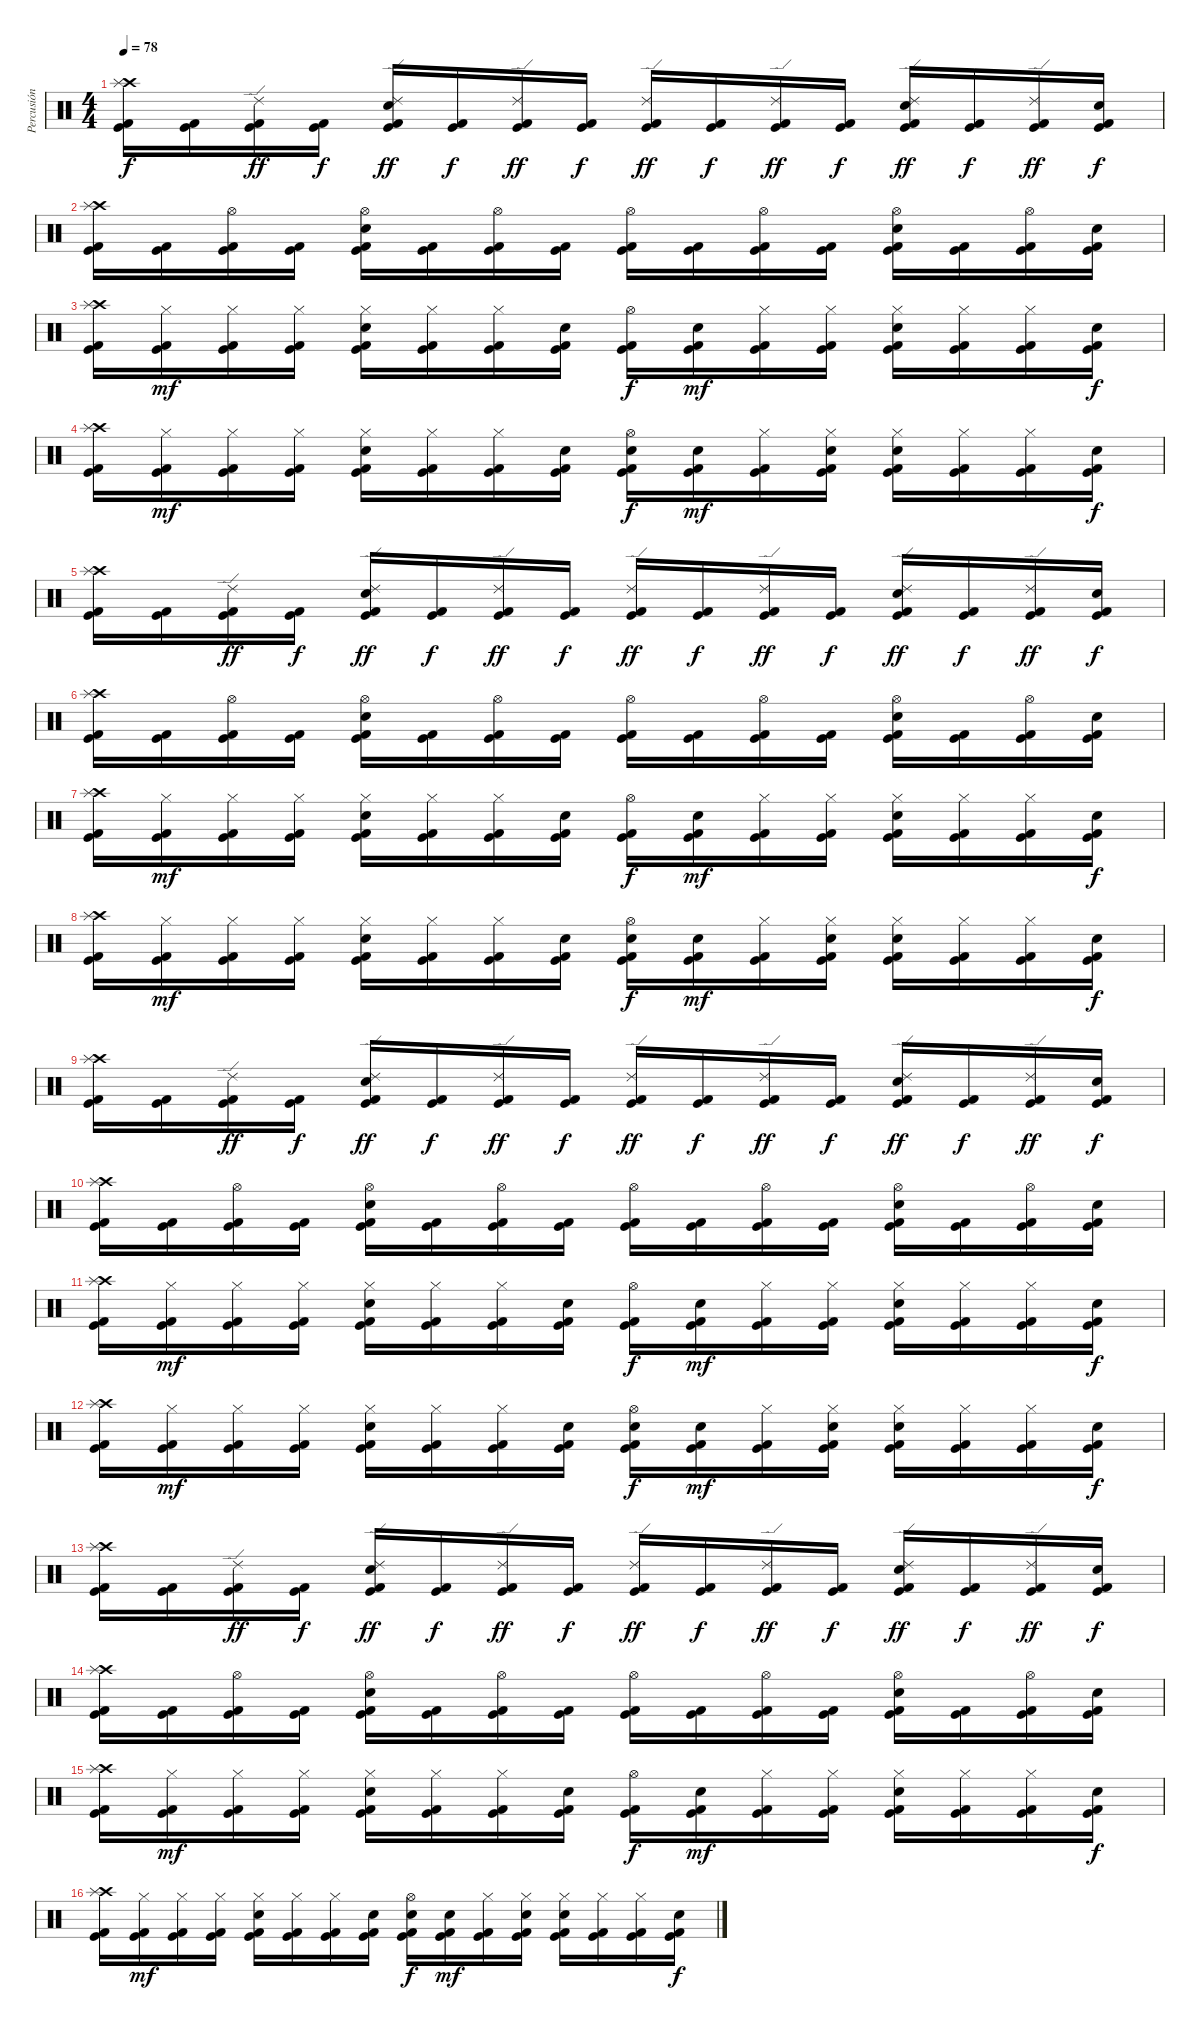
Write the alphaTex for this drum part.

\track ("Percusión" "Percusión") {instrument percussion}
\staff {score}
\articulation defaults
\ts (4 4)
\tempo 78
\clef neutral
\ks c
("Crash high (hit)" "Splash (hit)" "Kick (hit) 2" "Kick (hit)").16{dy f} ("Kick (hit) 2" "Kick (hit)").16 ("Ride (edge) 2" "Kick (hit) 2" "Kick (hit)").16{dy ff} ("Kick (hit) 2" "Kick (hit)").16{dy f} ("Ride (edge) 2" "Snare (hit) 2" "Kick (hit) 2" "Kick (hit)").16{dy ff} ("Kick (hit) 2" "Kick (hit)").16{dy f} ("Ride (edge) 2" "Kick (hit) 2" "Kick (hit)").16{dy ff} ("Kick (hit) 2" "Kick (hit)").16{dy f} ("Ride (edge) 2" "Kick (hit) 2" "Kick (hit)").16{dy ff} ("Kick (hit) 2" "Kick (hit)").16{dy f} ("Ride (edge) 2" "Kick (hit) 2" "Kick (hit)").16{dy ff} ("Kick (hit) 2" "Kick (hit)").16{dy f} ("Ride (edge) 2" "Snare (hit) 2" "Kick (hit) 2" "Kick (hit)").16{dy ff} ("Kick (hit) 2" "Kick (hit)").16{dy f} ("Ride (edge) 2" "Kick (hit) 2" "Kick (hit)").16{dy ff} ("Snare (hit) 2" "Kick (hit) 2" "Kick (hit)").16{dy f} |
("Crash high (hit)" "Splash (hit)" "Kick (hit) 2" "Kick (hit)").16 ("Kick (hit) 2" "Kick (hit)").16 ("Hi-Hat (open)" "Kick (hit) 2" "Kick (hit)").16 ("Kick (hit) 2" "Kick (hit)").16 ("Hi-Hat (open)" "Snare (hit) 2" "Kick (hit) 2" "Kick (hit)").16 ("Kick (hit) 2" "Kick (hit)").16 ("Hi-Hat (open)" "Kick (hit) 2" "Kick (hit)").16 ("Kick (hit) 2" "Kick (hit)").16 ("Hi-Hat (open)" "Kick (hit) 2" "Kick (hit)").16 ("Kick (hit) 2" "Kick (hit)").16 ("Hi-Hat (open)" "Kick (hit) 2" "Kick (hit)").16 ("Kick (hit) 2" "Kick (hit)").16 ("Hi-Hat (open)" "Snare (hit) 2" "Kick (hit) 2" "Kick (hit)").16 ("Kick (hit) 2" "Kick (hit)").16 ("Hi-Hat (open)" "Kick (hit) 2" "Kick (hit)").16 ("Snare (hit) 2" "Kick (hit) 2" "Kick (hit)").16 |
("Crash high (hit)" "Splash (hit)" "Kick (hit) 2" "Kick (hit)").16 ("Hi-Hat (closed)" "Kick (hit) 2" "Kick (hit)").16{dy mf} ("Hi-Hat (closed)" "Kick (hit) 2" "Kick (hit)").16 ("Hi-Hat (closed)" "Kick (hit) 2" "Kick (hit)").16 ("Hi-Hat (closed)" "Snare (hit) 2" "Kick (hit) 2" "Kick (hit)").16 ("Hi-Hat (closed)" "Kick (hit) 2" "Kick (hit)").16 ("Hi-Hat (closed)" "Kick (hit) 2" "Kick (hit)").16 ("Snare (hit)" "Kick (hit) 2" "Kick (hit)").16 ("Hi-Hat (open)" "Kick (hit) 2" "Kick (hit)").16{dy f} ("Snare (hit)" "Kick (hit) 2" "Kick (hit)").16{dy mf} ("Hi-Hat (closed)" "Kick (hit) 2" "Kick (hit)").16 ("Hi-Hat (closed)" "Kick (hit) 2" "Kick (hit)").16 ("Hi-Hat (closed)" "Snare (hit) 2" "Kick (hit) 2" "Kick (hit)").16 ("Hi-Hat (closed)" "Kick (hit) 2" "Kick (hit)").16 ("Hi-Hat (closed)" "Kick (hit) 2" "Kick (hit)").16 ("Snare (hit) 2" "Kick (hit) 2" "Kick (hit)").16{dy f} |
("Crash high (hit)" "Splash (hit)" "Kick (hit) 2" "Kick (hit)").16 ("Hi-Hat (closed)" "Kick (hit) 2" "Kick (hit)").16{dy mf} ("Hi-Hat (closed)" "Kick (hit) 2" "Kick (hit)").16 ("Hi-Hat (closed)" "Kick (hit) 2" "Kick (hit)").16 ("Hi-Hat (closed)" "Snare (hit) 2" "Kick (hit) 2" "Kick (hit)").16 ("Hi-Hat (closed)" "Kick (hit) 2" "Kick (hit)").16 ("Hi-Hat (closed)" "Kick (hit) 2" "Kick (hit)").16 ("Snare (hit)" "Kick (hit) 2" "Kick (hit)").16 ("Hi-Hat (open)" "Snare (hit) 2" "Kick (hit) 2" "Kick (hit)").16{dy f} ("Snare (hit)" "Kick (hit) 2" "Kick (hit)").16{dy mf} ("Hi-Hat (closed)" "Kick (hit) 2" "Kick (hit)").16 ("Hi-Hat (closed)" "Snare (hit) 2" "Kick (hit) 2" "Kick (hit)").16 ("Hi-Hat (closed)" "Snare (hit) 2" "Kick (hit) 2" "Kick (hit)").16 ("Hi-Hat (closed)" "Kick (hit) 2" "Kick (hit)").16 ("Hi-Hat (closed)" "Kick (hit) 2" "Kick (hit)").16 ("Snare (hit) 2" "Kick (hit) 2" "Kick (hit)").16{dy f} |
("Crash high (hit)" "Splash (hit)" "Kick (hit) 2" "Kick (hit)").16 ("Kick (hit) 2" "Kick (hit)").16 ("Ride (edge) 2" "Kick (hit) 2" "Kick (hit)").16{dy ff} ("Kick (hit) 2" "Kick (hit)").16{dy f} ("Ride (edge) 2" "Snare (hit) 2" "Kick (hit) 2" "Kick (hit)").16{dy ff} ("Kick (hit) 2" "Kick (hit)").16{dy f} ("Ride (edge) 2" "Kick (hit) 2" "Kick (hit)").16{dy ff} ("Kick (hit) 2" "Kick (hit)").16{dy f} ("Ride (edge) 2" "Kick (hit) 2" "Kick (hit)").16{dy ff} ("Kick (hit) 2" "Kick (hit)").16{dy f} ("Ride (edge) 2" "Kick (hit) 2" "Kick (hit)").16{dy ff} ("Kick (hit) 2" "Kick (hit)").16{dy f} ("Ride (edge) 2" "Snare (hit) 2" "Kick (hit) 2" "Kick (hit)").16{dy ff} ("Kick (hit) 2" "Kick (hit)").16{dy f} ("Ride (edge) 2" "Kick (hit) 2" "Kick (hit)").16{dy ff} ("Snare (hit) 2" "Kick (hit) 2" "Kick (hit)").16{dy f} |
("Crash high (hit)" "Splash (hit)" "Kick (hit) 2" "Kick (hit)").16 ("Kick (hit) 2" "Kick (hit)").16 ("Hi-Hat (open)" "Kick (hit) 2" "Kick (hit)").16 ("Kick (hit) 2" "Kick (hit)").16 ("Hi-Hat (open)" "Snare (hit) 2" "Kick (hit) 2" "Kick (hit)").16 ("Kick (hit) 2" "Kick (hit)").16 ("Hi-Hat (open)" "Kick (hit) 2" "Kick (hit)").16 ("Kick (hit) 2" "Kick (hit)").16 ("Hi-Hat (open)" "Kick (hit) 2" "Kick (hit)").16 ("Kick (hit) 2" "Kick (hit)").16 ("Hi-Hat (open)" "Kick (hit) 2" "Kick (hit)").16 ("Kick (hit) 2" "Kick (hit)").16 ("Hi-Hat (open)" "Snare (hit) 2" "Kick (hit) 2" "Kick (hit)").16 ("Kick (hit) 2" "Kick (hit)").16 ("Hi-Hat (open)" "Kick (hit) 2" "Kick (hit)").16 ("Snare (hit) 2" "Kick (hit) 2" "Kick (hit)").16 |
("Crash high (hit)" "Splash (hit)" "Kick (hit) 2" "Kick (hit)").16 ("Hi-Hat (closed)" "Kick (hit) 2" "Kick (hit)").16{dy mf} ("Hi-Hat (closed)" "Kick (hit) 2" "Kick (hit)").16 ("Hi-Hat (closed)" "Kick (hit) 2" "Kick (hit)").16 ("Hi-Hat (closed)" "Snare (hit) 2" "Kick (hit) 2" "Kick (hit)").16 ("Hi-Hat (closed)" "Kick (hit) 2" "Kick (hit)").16 ("Hi-Hat (closed)" "Kick (hit) 2" "Kick (hit)").16 ("Snare (hit)" "Kick (hit) 2" "Kick (hit)").16 ("Hi-Hat (open)" "Kick (hit) 2" "Kick (hit)").16{dy f} ("Snare (hit)" "Kick (hit) 2" "Kick (hit)").16{dy mf} ("Hi-Hat (closed)" "Kick (hit) 2" "Kick (hit)").16 ("Hi-Hat (closed)" "Kick (hit) 2" "Kick (hit)").16 ("Hi-Hat (closed)" "Snare (hit) 2" "Kick (hit) 2" "Kick (hit)").16 ("Hi-Hat (closed)" "Kick (hit) 2" "Kick (hit)").16 ("Hi-Hat (closed)" "Kick (hit) 2" "Kick (hit)").16 ("Snare (hit) 2" "Kick (hit) 2" "Kick (hit)").16{dy f} |
("Crash high (hit)" "Splash (hit)" "Kick (hit) 2" "Kick (hit)").16 ("Hi-Hat (closed)" "Kick (hit) 2" "Kick (hit)").16{dy mf} ("Hi-Hat (closed)" "Kick (hit) 2" "Kick (hit)").16 ("Hi-Hat (closed)" "Kick (hit) 2" "Kick (hit)").16 ("Hi-Hat (closed)" "Snare (hit) 2" "Kick (hit) 2" "Kick (hit)").16 ("Hi-Hat (closed)" "Kick (hit) 2" "Kick (hit)").16 ("Hi-Hat (closed)" "Kick (hit) 2" "Kick (hit)").16 ("Snare (hit)" "Kick (hit) 2" "Kick (hit)").16 ("Hi-Hat (open)" "Snare (hit) 2" "Kick (hit) 2" "Kick (hit)").16{dy f} ("Snare (hit)" "Kick (hit) 2" "Kick (hit)").16{dy mf} ("Hi-Hat (closed)" "Kick (hit) 2" "Kick (hit)").16 ("Hi-Hat (closed)" "Snare (hit) 2" "Kick (hit) 2" "Kick (hit)").16 ("Hi-Hat (closed)" "Snare (hit) 2" "Kick (hit) 2" "Kick (hit)").16 ("Hi-Hat (closed)" "Kick (hit) 2" "Kick (hit)").16 ("Hi-Hat (closed)" "Kick (hit) 2" "Kick (hit)").16 ("Snare (hit) 2" "Kick (hit) 2" "Kick (hit)").16{dy f} |
("Crash high (hit)" "Splash (hit)" "Kick (hit) 2" "Kick (hit)").16 ("Kick (hit) 2" "Kick (hit)").16 ("Ride (edge) 2" "Kick (hit) 2" "Kick (hit)").16{dy ff} ("Kick (hit) 2" "Kick (hit)").16{dy f} ("Ride (edge) 2" "Snare (hit) 2" "Kick (hit) 2" "Kick (hit)").16{dy ff} ("Kick (hit) 2" "Kick (hit)").16{dy f} ("Ride (edge) 2" "Kick (hit) 2" "Kick (hit)").16{dy ff} ("Kick (hit) 2" "Kick (hit)").16{dy f} ("Ride (edge) 2" "Kick (hit) 2" "Kick (hit)").16{dy ff} ("Kick (hit) 2" "Kick (hit)").16{dy f} ("Ride (edge) 2" "Kick (hit) 2" "Kick (hit)").16{dy ff} ("Kick (hit) 2" "Kick (hit)").16{dy f} ("Ride (edge) 2" "Snare (hit) 2" "Kick (hit) 2" "Kick (hit)").16{dy ff} ("Kick (hit) 2" "Kick (hit)").16{dy f} ("Ride (edge) 2" "Kick (hit) 2" "Kick (hit)").16{dy ff} ("Snare (hit) 2" "Kick (hit) 2" "Kick (hit)").16{dy f} |
("Crash high (hit)" "Splash (hit)" "Kick (hit) 2" "Kick (hit)").16 ("Kick (hit) 2" "Kick (hit)").16 ("Hi-Hat (open)" "Kick (hit) 2" "Kick (hit)").16 ("Kick (hit) 2" "Kick (hit)").16 ("Hi-Hat (open)" "Snare (hit) 2" "Kick (hit) 2" "Kick (hit)").16 ("Kick (hit) 2" "Kick (hit)").16 ("Hi-Hat (open)" "Kick (hit) 2" "Kick (hit)").16 ("Kick (hit) 2" "Kick (hit)").16 ("Hi-Hat (open)" "Kick (hit) 2" "Kick (hit)").16 ("Kick (hit) 2" "Kick (hit)").16 ("Hi-Hat (open)" "Kick (hit) 2" "Kick (hit)").16 ("Kick (hit) 2" "Kick (hit)").16 ("Hi-Hat (open)" "Snare (hit) 2" "Kick (hit) 2" "Kick (hit)").16 ("Kick (hit) 2" "Kick (hit)").16 ("Hi-Hat (open)" "Kick (hit) 2" "Kick (hit)").16 ("Snare (hit) 2" "Kick (hit) 2" "Kick (hit)").16 |
("Crash high (hit)" "Splash (hit)" "Kick (hit) 2" "Kick (hit)").16 ("Hi-Hat (closed)" "Kick (hit) 2" "Kick (hit)").16{dy mf} ("Hi-Hat (closed)" "Kick (hit) 2" "Kick (hit)").16 ("Hi-Hat (closed)" "Kick (hit) 2" "Kick (hit)").16 ("Hi-Hat (closed)" "Snare (hit) 2" "Kick (hit) 2" "Kick (hit)").16 ("Hi-Hat (closed)" "Kick (hit) 2" "Kick (hit)").16 ("Hi-Hat (closed)" "Kick (hit) 2" "Kick (hit)").16 ("Snare (hit)" "Kick (hit) 2" "Kick (hit)").16 ("Hi-Hat (open)" "Kick (hit) 2" "Kick (hit)").16{dy f} ("Snare (hit)" "Kick (hit) 2" "Kick (hit)").16{dy mf} ("Hi-Hat (closed)" "Kick (hit) 2" "Kick (hit)").16 ("Hi-Hat (closed)" "Kick (hit) 2" "Kick (hit)").16 ("Hi-Hat (closed)" "Snare (hit) 2" "Kick (hit) 2" "Kick (hit)").16 ("Hi-Hat (closed)" "Kick (hit) 2" "Kick (hit)").16 ("Hi-Hat (closed)" "Kick (hit) 2" "Kick (hit)").16 ("Snare (hit) 2" "Kick (hit) 2" "Kick (hit)").16{dy f} |
("Crash high (hit)" "Splash (hit)" "Kick (hit) 2" "Kick (hit)").16 ("Hi-Hat (closed)" "Kick (hit) 2" "Kick (hit)").16{dy mf} ("Hi-Hat (closed)" "Kick (hit) 2" "Kick (hit)").16 ("Hi-Hat (closed)" "Kick (hit) 2" "Kick (hit)").16 ("Hi-Hat (closed)" "Snare (hit) 2" "Kick (hit) 2" "Kick (hit)").16 ("Hi-Hat (closed)" "Kick (hit) 2" "Kick (hit)").16 ("Hi-Hat (closed)" "Kick (hit) 2" "Kick (hit)").16 ("Snare (hit)" "Kick (hit) 2" "Kick (hit)").16 ("Hi-Hat (open)" "Snare (hit) 2" "Kick (hit) 2" "Kick (hit)").16{dy f} ("Snare (hit)" "Kick (hit) 2" "Kick (hit)").16{dy mf} ("Hi-Hat (closed)" "Kick (hit) 2" "Kick (hit)").16 ("Hi-Hat (closed)" "Snare (hit) 2" "Kick (hit) 2" "Kick (hit)").16 ("Hi-Hat (closed)" "Snare (hit) 2" "Kick (hit) 2" "Kick (hit)").16 ("Hi-Hat (closed)" "Kick (hit) 2" "Kick (hit)").16 ("Hi-Hat (closed)" "Kick (hit) 2" "Kick (hit)").16 ("Snare (hit) 2" "Kick (hit) 2" "Kick (hit)").16{dy f} |
("Crash high (hit)" "Splash (hit)" "Kick (hit) 2" "Kick (hit)").16 ("Kick (hit) 2" "Kick (hit)").16 ("Ride (edge) 2" "Kick (hit) 2" "Kick (hit)").16{dy ff} ("Kick (hit) 2" "Kick (hit)").16{dy f} ("Ride (edge) 2" "Snare (hit) 2" "Kick (hit) 2" "Kick (hit)").16{dy ff} ("Kick (hit) 2" "Kick (hit)").16{dy f} ("Ride (edge) 2" "Kick (hit) 2" "Kick (hit)").16{dy ff} ("Kick (hit) 2" "Kick (hit)").16{dy f} ("Ride (edge) 2" "Kick (hit) 2" "Kick (hit)").16{dy ff} ("Kick (hit) 2" "Kick (hit)").16{dy f} ("Ride (edge) 2" "Kick (hit) 2" "Kick (hit)").16{dy ff} ("Kick (hit) 2" "Kick (hit)").16{dy f} ("Ride (edge) 2" "Snare (hit) 2" "Kick (hit) 2" "Kick (hit)").16{dy ff} ("Kick (hit) 2" "Kick (hit)").16{dy f} ("Ride (edge) 2" "Kick (hit) 2" "Kick (hit)").16{dy ff} ("Snare (hit) 2" "Kick (hit) 2" "Kick (hit)").16{dy f} |
("Crash high (hit)" "Splash (hit)" "Kick (hit) 2" "Kick (hit)").16 ("Kick (hit) 2" "Kick (hit)").16 ("Hi-Hat (open)" "Kick (hit) 2" "Kick (hit)").16 ("Kick (hit) 2" "Kick (hit)").16 ("Hi-Hat (open)" "Snare (hit) 2" "Kick (hit) 2" "Kick (hit)").16 ("Kick (hit) 2" "Kick (hit)").16 ("Hi-Hat (open)" "Kick (hit) 2" "Kick (hit)").16 ("Kick (hit) 2" "Kick (hit)").16 ("Hi-Hat (open)" "Kick (hit) 2" "Kick (hit)").16 ("Kick (hit) 2" "Kick (hit)").16 ("Hi-Hat (open)" "Kick (hit) 2" "Kick (hit)").16 ("Kick (hit) 2" "Kick (hit)").16 ("Hi-Hat (open)" "Snare (hit) 2" "Kick (hit) 2" "Kick (hit)").16 ("Kick (hit) 2" "Kick (hit)").16 ("Hi-Hat (open)" "Kick (hit) 2" "Kick (hit)").16 ("Snare (hit) 2" "Kick (hit) 2" "Kick (hit)").16 |
("Crash high (hit)" "Splash (hit)" "Kick (hit) 2" "Kick (hit)").16 ("Hi-Hat (closed)" "Kick (hit) 2" "Kick (hit)").16{dy mf} ("Hi-Hat (closed)" "Kick (hit) 2" "Kick (hit)").16 ("Hi-Hat (closed)" "Kick (hit) 2" "Kick (hit)").16 ("Hi-Hat (closed)" "Snare (hit) 2" "Kick (hit) 2" "Kick (hit)").16 ("Hi-Hat (closed)" "Kick (hit) 2" "Kick (hit)").16 ("Hi-Hat (closed)" "Kick (hit) 2" "Kick (hit)").16 ("Snare (hit)" "Kick (hit) 2" "Kick (hit)").16 ("Hi-Hat (open)" "Kick (hit) 2" "Kick (hit)").16{dy f} ("Snare (hit)" "Kick (hit) 2" "Kick (hit)").16{dy mf} ("Hi-Hat (closed)" "Kick (hit) 2" "Kick (hit)").16 ("Hi-Hat (closed)" "Kick (hit) 2" "Kick (hit)").16 ("Hi-Hat (closed)" "Snare (hit) 2" "Kick (hit) 2" "Kick (hit)").16 ("Hi-Hat (closed)" "Kick (hit) 2" "Kick (hit)").16 ("Hi-Hat (closed)" "Kick (hit) 2" "Kick (hit)").16 ("Snare (hit) 2" "Kick (hit) 2" "Kick (hit)").16{dy f} |
("Crash high (hit)" "Splash (hit)" "Kick (hit) 2" "Kick (hit)").16 ("Hi-Hat (closed)" "Kick (hit) 2" "Kick (hit)").16{dy mf} ("Hi-Hat (closed)" "Kick (hit) 2" "Kick (hit)").16 ("Hi-Hat (closed)" "Kick (hit) 2" "Kick (hit)").16 ("Hi-Hat (closed)" "Snare (hit) 2" "Kick (hit) 2" "Kick (hit)").16 ("Hi-Hat (closed)" "Kick (hit) 2" "Kick (hit)").16 ("Hi-Hat (closed)" "Kick (hit) 2" "Kick (hit)").16 ("Snare (hit)" "Kick (hit) 2" "Kick (hit)").16 ("Hi-Hat (open)" "Snare (hit) 2" "Kick (hit) 2" "Kick (hit)").16{dy f} ("Snare (hit)" "Kick (hit) 2" "Kick (hit)").16{dy mf} ("Hi-Hat (closed)" "Kick (hit) 2" "Kick (hit)").16 ("Hi-Hat (closed)" "Snare (hit) 2" "Kick (hit) 2" "Kick (hit)").16 ("Hi-Hat (closed)" "Snare (hit) 2" "Kick (hit) 2" "Kick (hit)").16 ("Hi-Hat (closed)" "Kick (hit) 2" "Kick (hit)").16 ("Hi-Hat (closed)" "Kick (hit) 2" "Kick (hit)").16 ("Snare (hit) 2" "Kick (hit) 2" "Kick (hit)").16{dy f}
